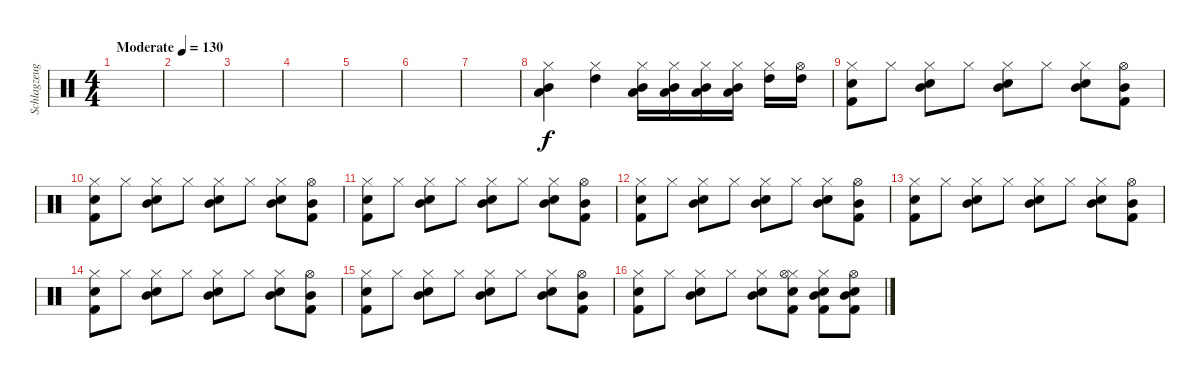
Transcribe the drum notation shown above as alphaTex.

\track ("Schlagzeug" "Schlagzeug") {instrument percussion}
\staff {score}
\articulation defaults
\ts (4 4)
\tempo (130 "Moderate")
\clef neutral
\ks c
|
|
|
|
|
|
|
("Hi-Hat (closed)" "Mid Tom (hit)" "Low Floor Tom (hit)").4 ("Hi-Hat (closed)" "High Tom (hit)").4 ("Hi-Hat (closed)" "Mid Tom (hit)" "Low Floor Tom (hit)").16 ("Hi-Hat (closed)" "Mid Tom (hit)" "Low Floor Tom (hit)").16 ("Hi-Hat (closed)" "Mid Tom (hit)" "Low Floor Tom (hit)").16 ("Hi-Hat (closed)" "Mid Tom (hit)" "Low Floor Tom (hit)").16 ("Hi-Hat (closed)" "High Tom (hit)").16 ("Hi-Hat (open)" "High Tom (hit)").16 |
("Hi-Hat (closed)" "Snare (hit) 2" "Kick (hit) 2").8 "Hi-Hat (closed)".8 ("Hi-Hat (closed)" "Mid Tom (hit)" "Snare (hit) 2").8 "Hi-Hat (closed)".8 ("Hi-Hat (closed)" "Mid Tom (hit)" "Snare (hit) 2").8 "Hi-Hat (closed)".8 ("Hi-Hat (closed)" "Mid Tom (hit)" "Snare (hit) 2").8 ("Hi-Hat (open)" "Mid Tom (hit)" "Kick (hit) 2").8 |
("Hi-Hat (closed)" "Snare (hit) 2" "Kick (hit) 2").8 "Hi-Hat (closed)".8 ("Hi-Hat (closed)" "Mid Tom (hit)" "Snare (hit) 2").8 "Hi-Hat (closed)".8 ("Hi-Hat (closed)" "Mid Tom (hit)" "Snare (hit) 2").8 "Hi-Hat (closed)".8 ("Hi-Hat (closed)" "Mid Tom (hit)" "Snare (hit) 2").8 ("Hi-Hat (open)" "Mid Tom (hit)" "Kick (hit) 2").8 |
("Hi-Hat (closed)" "Snare (hit) 2" "Kick (hit) 2").8 "Hi-Hat (closed)".8 ("Hi-Hat (closed)" "Mid Tom (hit)" "Snare (hit) 2").8 "Hi-Hat (closed)".8 ("Hi-Hat (closed)" "Mid Tom (hit)" "Snare (hit) 2").8 "Hi-Hat (closed)".8 ("Hi-Hat (closed)" "Mid Tom (hit)" "Snare (hit) 2").8 ("Hi-Hat (open)" "Mid Tom (hit)" "Kick (hit) 2").8 |
("Hi-Hat (closed)" "Snare (hit) 2" "Kick (hit) 2").8 "Hi-Hat (closed)".8 ("Hi-Hat (closed)" "Mid Tom (hit)" "Snare (hit) 2").8 "Hi-Hat (closed)".8 ("Hi-Hat (closed)" "Mid Tom (hit)" "Snare (hit) 2").8 "Hi-Hat (closed)".8 ("Hi-Hat (closed)" "Mid Tom (hit)" "Snare (hit) 2").8 ("Hi-Hat (open)" "Mid Tom (hit)" "Kick (hit) 2").8 |
("Hi-Hat (closed)" "Snare (hit) 2" "Kick (hit) 2").8 "Hi-Hat (closed)".8 ("Hi-Hat (closed)" "Mid Tom (hit)" "Snare (hit) 2").8 "Hi-Hat (closed)".8 ("Hi-Hat (closed)" "Mid Tom (hit)" "Snare (hit) 2").8 "Hi-Hat (closed)".8 ("Hi-Hat (closed)" "Mid Tom (hit)" "Snare (hit) 2").8 ("Hi-Hat (open)" "Mid Tom (hit)" "Kick (hit) 2").8 |
("Hi-Hat (closed)" "Snare (hit) 2" "Kick (hit) 2").8 "Hi-Hat (closed)".8 ("Hi-Hat (closed)" "Mid Tom (hit)" "Snare (hit) 2").8 "Hi-Hat (closed)".8 ("Hi-Hat (closed)" "Mid Tom (hit)" "Snare (hit) 2").8 "Hi-Hat (closed)".8 ("Hi-Hat (closed)" "Mid Tom (hit)" "Snare (hit) 2").8 ("Hi-Hat (open)" "Mid Tom (hit)" "Kick (hit) 2").8 |
("Hi-Hat (closed)" "Snare (hit) 2" "Kick (hit) 2").8 "Hi-Hat (closed)".8 ("Hi-Hat (closed)" "Mid Tom (hit)" "Snare (hit) 2").8 "Hi-Hat (closed)".8 ("Hi-Hat (closed)" "Mid Tom (hit)" "Snare (hit) 2").8 "Hi-Hat (closed)".8 ("Hi-Hat (closed)" "Mid Tom (hit)" "Snare (hit) 2").8 ("Hi-Hat (open)" "Mid Tom (hit)" "Kick (hit) 2").8 |
("Hi-Hat (closed)" "Snare (hit) 2" "Kick (hit) 2").8 "Hi-Hat (closed)".8 ("Hi-Hat (closed)" "Mid Tom (hit)" "Snare (hit) 2").8 "Hi-Hat (closed)".8 ("Hi-Hat (closed)" "Mid Tom (hit)" "Snare (hit) 2").8 ("Hi-Hat (closed)" "Hi-Hat (open)" "Kick (hit) 2" "Snare (hit) 2").8 ("Hi-Hat (closed)" "Mid Tom (hit)" "Kick (hit) 2" "Snare (hit) 2").8 ("Hi-Hat (open)" "Mid Tom (hit)" "Kick (hit) 2" "Snare (hit) 2").8
